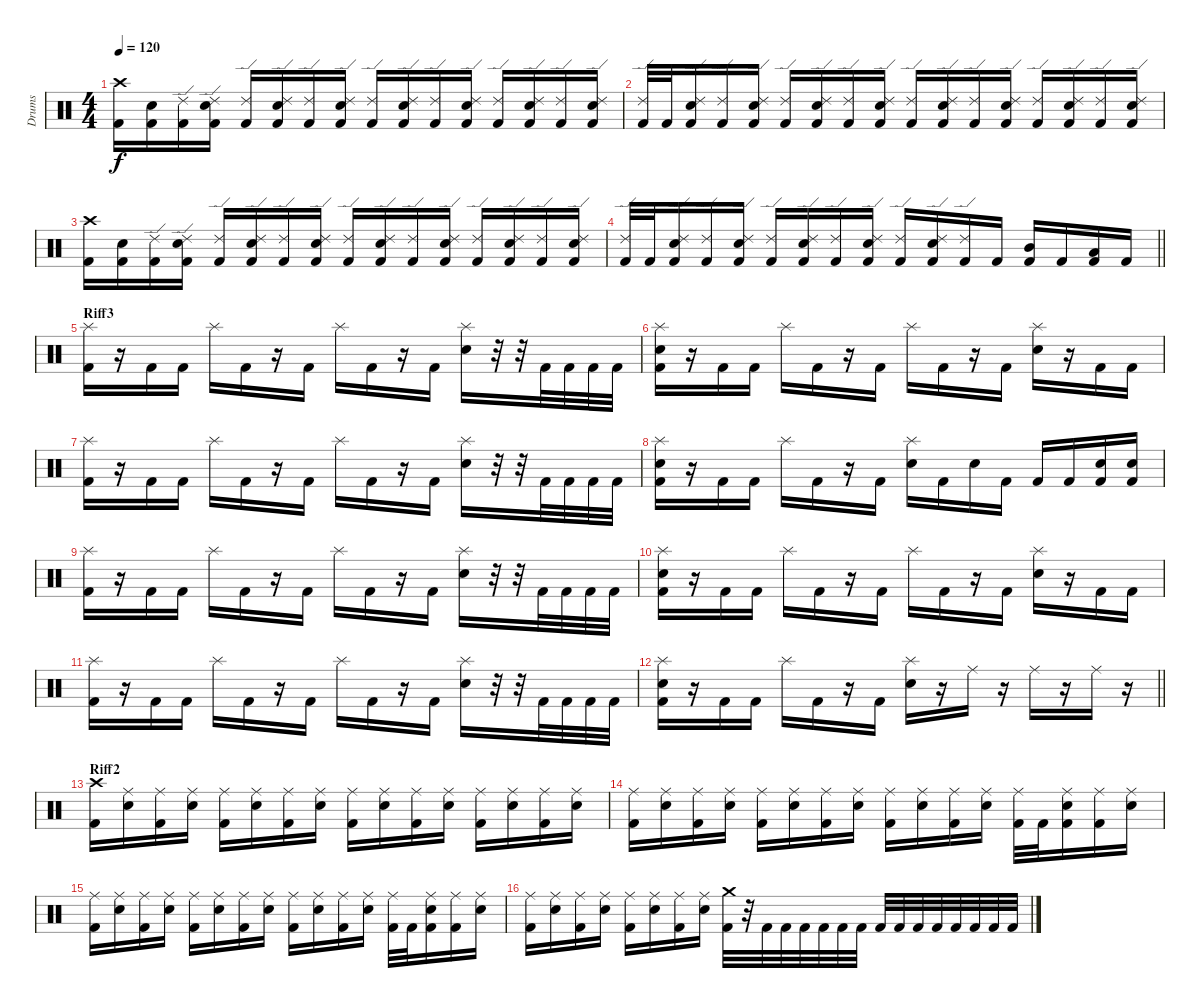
\track ("Drums" "Drums") {instrument percussion}
\staff {score}
\articulation defaults
\ts (4 4)
\tempo 120
\clef neutral
\ks c
("Kick (hit) 2" "Crash high (hit)").16{dy f} ("Kick (hit) 2" "Snare (hit) 2").16 ("Kick (hit) 2" "Ride (edge) 2").16 ("Kick (hit) 2" "Ride (edge) 2" "Snare (hit) 2").16 ("Kick (hit) 2" "Ride (edge) 2").16 ("Kick (hit) 2" "Ride (edge) 2" "Snare (hit) 2").16 ("Kick (hit) 2" "Ride (edge) 2").16 ("Kick (hit) 2" "Ride (edge) 2" "Snare (hit) 2").16 ("Kick (hit) 2" "Ride (edge) 2").16 ("Kick (hit) 2" "Ride (edge) 2" "Snare (hit) 2").16 ("Kick (hit) 2" "Ride (edge) 2").16 ("Kick (hit) 2" "Ride (edge) 2" "Snare (hit) 2").16 ("Kick (hit) 2" "Ride (edge) 2").16 ("Kick (hit) 2" "Ride (edge) 2" "Snare (hit) 2").16 ("Kick (hit) 2" "Ride (edge) 2").16 ("Kick (hit) 2" "Ride (edge) 2" "Snare (hit) 2").16 |
("Kick (hit) 2" "Ride (edge) 2").32 "Kick (hit) 2".32 ("Kick (hit) 2" "Ride (edge) 2" "Snare (hit) 2").16 ("Kick (hit) 2" "Ride (edge) 2").16 ("Kick (hit) 2" "Ride (edge) 2" "Snare (hit) 2").16 ("Kick (hit) 2" "Ride (edge) 2").16 ("Kick (hit) 2" "Ride (edge) 2" "Snare (hit) 2").16 ("Kick (hit) 2" "Ride (edge) 2").16 ("Kick (hit) 2" "Ride (edge) 2" "Snare (hit) 2").16 ("Kick (hit) 2" "Ride (edge) 2").16 ("Kick (hit) 2" "Ride (edge) 2" "Snare (hit) 2").16 ("Kick (hit) 2" "Ride (edge) 2").16 ("Kick (hit) 2" "Ride (edge) 2" "Snare (hit) 2").16 ("Kick (hit) 2" "Ride (edge) 2").16 ("Kick (hit) 2" "Ride (edge) 2" "Snare (hit) 2").16 ("Kick (hit) 2" "Ride (edge) 2").16 ("Kick (hit) 2" "Ride (edge) 2" "Snare (hit) 2").16 |
("Kick (hit) 2" "Crash high (hit)").16 ("Kick (hit) 2" "Snare (hit) 2").16 ("Kick (hit) 2" "Ride (edge) 2").16 ("Kick (hit) 2" "Ride (edge) 2" "Snare (hit) 2").16 ("Kick (hit) 2" "Ride (edge) 2").16 ("Kick (hit) 2" "Ride (edge) 2" "Snare (hit) 2").16 ("Kick (hit) 2" "Ride (edge) 2").16 ("Kick (hit) 2" "Ride (edge) 2" "Snare (hit) 2").16 ("Kick (hit) 2" "Ride (edge) 2").16 ("Kick (hit) 2" "Ride (edge) 2" "Snare (hit) 2").16 ("Kick (hit) 2" "Ride (edge) 2").16 ("Kick (hit) 2" "Ride (edge) 2" "Snare (hit) 2").16 ("Kick (hit) 2" "Ride (edge) 2").16 ("Kick (hit) 2" "Ride (edge) 2" "Snare (hit) 2").16 ("Kick (hit) 2" "Ride (edge) 2").16 ("Kick (hit) 2" "Ride (edge) 2" "Snare (hit) 2").16 |
\barLineRight lightlight
("Kick (hit) 2" "Ride (edge) 2").32 "Kick (hit) 2".32 ("Kick (hit) 2" "Ride (edge) 2" "Snare (hit) 2").16 ("Kick (hit) 2" "Ride (edge) 2").16 ("Kick (hit) 2" "Ride (edge) 2" "Snare (hit) 2").16 ("Kick (hit) 2" "Ride (edge) 2").16 ("Kick (hit) 2" "Ride (edge) 2" "Snare (hit) 2").16 ("Kick (hit) 2" "Ride (edge) 2").16 ("Kick (hit) 2" "Ride (edge) 2" "Snare (hit) 2").16 ("Kick (hit) 2" "Ride (edge) 2").16 ("Kick (hit) 2" "Ride (edge) 2" "Snare (hit) 2").16 ("Kick (hit) 2" "Ride (edge) 2").16 "Kick (hit) 2".16 ("Kick (hit) 2" "Mid Tom (hit)").16 "Kick (hit) 2".16 ("Kick (hit) 2" "Low Tom (hit)").16 "Kick (hit) 2".16 |
\section ("" "Riff3")
("Kick (hit) 2" "Splash (hit)").16 r.16 "Kick (hit) 2".16 "Kick (hit) 2".16 "Splash (hit)".16 "Kick (hit) 2".16 r.16 "Kick (hit) 2".16 "Splash (hit)".16 "Kick (hit) 2".16 r.16 "Kick (hit) 2".16 ("Splash (hit)" "Snare (hit) 2").16 r.32 r.32 "Kick (hit) 2".32 "Kick (hit) 2".32 "Kick (hit) 2".32 "Kick (hit) 2".32 |
("Kick (hit) 2" "Splash (hit)" "Snare (hit) 2").16 r.16 "Kick (hit) 2".16 "Kick (hit) 2".16 "Splash (hit)".16 "Kick (hit) 2".16 r.16 "Kick (hit) 2".16 "Splash (hit)".16 "Kick (hit) 2".16 r.16 "Kick (hit) 2".16 ("Splash (hit)" "Snare (hit) 2").16 r.16 "Kick (hit) 2".16 "Kick (hit) 2".16 |
("Kick (hit) 2" "Splash (hit)").16 r.16 "Kick (hit) 2".16 "Kick (hit) 2".16 "Splash (hit)".16 "Kick (hit) 2".16 r.16 "Kick (hit) 2".16 "Splash (hit)".16 "Kick (hit) 2".16 r.16 "Kick (hit) 2".16 ("Splash (hit)" "Snare (hit) 2").16 r.32 r.32 "Kick (hit) 2".32 "Kick (hit) 2".32 "Kick (hit) 2".32 "Kick (hit) 2".32 |
("Kick (hit) 2" "Splash (hit)" "Snare (hit) 2").16 r.16 "Kick (hit) 2".16 "Kick (hit) 2".16 "Splash (hit)".16 "Kick (hit) 2".16 r.16 "Kick (hit) 2".16 ("Splash (hit)" "Snare (hit) 2").16 "Kick (hit) 2".16 "Snare (hit) 2".16 "Kick (hit) 2".16 "Kick (hit) 2".16 "Kick (hit) 2".16 ("Kick (hit) 2" "Snare (hit) 2").16 ("Kick (hit) 2" "Snare (hit) 2").16 |
("Kick (hit) 2" "Splash (hit)").16 r.16 "Kick (hit) 2".16 "Kick (hit) 2".16 "Splash (hit)".16 "Kick (hit) 2".16 r.16 "Kick (hit) 2".16 "Splash (hit)".16 "Kick (hit) 2".16 r.16 "Kick (hit) 2".16 ("Splash (hit)" "Snare (hit) 2").16 r.32 r.32 "Kick (hit) 2".32 "Kick (hit) 2".32 "Kick (hit) 2".32 "Kick (hit) 2".32 |
("Kick (hit) 2" "Splash (hit)" "Snare (hit) 2").16 r.16 "Kick (hit) 2".16 "Kick (hit) 2".16 "Splash (hit)".16 "Kick (hit) 2".16 r.16 "Kick (hit) 2".16 "Splash (hit)".16 "Kick (hit) 2".16 r.16 "Kick (hit) 2".16 ("Splash (hit)" "Snare (hit) 2").16 r.16 "Kick (hit) 2".16 "Kick (hit) 2".16 |
("Kick (hit) 2" "Splash (hit)").16 r.16 "Kick (hit) 2".16 "Kick (hit) 2".16 "Splash (hit)".16 "Kick (hit) 2".16 r.16 "Kick (hit) 2".16 "Splash (hit)".16 "Kick (hit) 2".16 r.16 "Kick (hit) 2".16 ("Splash (hit)" "Snare (hit) 2").16 r.32 r.32 "Kick (hit) 2".32 "Kick (hit) 2".32 "Kick (hit) 2".32 "Kick (hit) 2".32 |
\barLineRight lightlight
("Kick (hit) 2" "Splash (hit)" "Snare (hit) 2").16 r.16 "Kick (hit) 2".16 "Kick (hit) 2".16 "Splash (hit)".16 "Kick (hit) 2".16 r.16 "Kick (hit) 2".16 ("Splash (hit)" "Snare (hit) 2").16 r.16 "Ride (middle)".16 r.16 "Ride (middle)".16 r.16 "Ride (middle)".16 r.16 |
\section ("" "Riff2")
("Kick (hit) 2" "Crash high (hit)").16 ("Ride (middle)" "Snare (hit) 2").16 ("Kick (hit) 2" "Ride (middle)").16 ("Ride (middle)" "Snare (hit) 2").16 ("Kick (hit) 2" "Ride (middle)").16 ("Ride (middle)" "Snare (hit) 2").16 ("Kick (hit) 2" "Ride (middle)").16 ("Ride (middle)" "Snare (hit) 2").16 ("Kick (hit) 2" "Ride (middle)").16 ("Ride (middle)" "Snare (hit) 2").16 ("Kick (hit) 2" "Ride (middle)").16 ("Ride (middle)" "Snare (hit) 2").16 ("Kick (hit) 2" "Ride (middle)").16 ("Ride (middle)" "Snare (hit) 2").16 ("Kick (hit) 2" "Ride (middle)").16 ("Ride (middle)" "Snare (hit) 2").16 |
("Kick (hit) 2" "Ride (middle)").16 ("Ride (middle)" "Snare (hit) 2").16 ("Kick (hit) 2" "Ride (middle)").16 ("Ride (middle)" "Snare (hit) 2").16 ("Kick (hit) 2" "Ride (middle)").16 ("Ride (middle)" "Snare (hit) 2").16 ("Kick (hit) 2" "Ride (middle)").16 ("Ride (middle)" "Snare (hit) 2").16 ("Kick (hit) 2" "Ride (middle)").16 ("Ride (middle)" "Snare (hit) 2").16 ("Kick (hit) 2" "Ride (middle)").16 ("Ride (middle)" "Snare (hit) 2").16 ("Kick (hit) 2" "Ride (middle)").32 "Kick (hit) 2".32 ("Kick (hit) 2" "Ride (middle)" "Snare (hit) 2").16 ("Kick (hit) 2" "Ride (middle)").16 ("Ride (middle)" "Snare (hit) 2").16 |
("Kick (hit) 2" "Ride (middle)").16 ("Ride (middle)" "Snare (hit) 2").16 ("Kick (hit) 2" "Ride (middle)").16 ("Ride (middle)" "Snare (hit) 2").16 ("Kick (hit) 2" "Ride (middle)").16 ("Ride (middle)" "Snare (hit) 2").16 ("Kick (hit) 2" "Ride (middle)").16 ("Ride (middle)" "Snare (hit) 2").16 ("Kick (hit) 2" "Ride (middle)").16 ("Ride (middle)" "Snare (hit) 2").16 ("Kick (hit) 2" "Ride (middle)").16 ("Ride (middle)" "Snare (hit) 2").16 ("Kick (hit) 2" "Ride (middle)").32 "Kick (hit) 2".32 ("Kick (hit) 2" "Ride (middle)" "Snare (hit) 2").16 ("Kick (hit) 2" "Ride (middle)").16 ("Ride (middle)" "Snare (hit) 2").16 |
("Kick (hit) 2" "Ride (middle)").16 ("Ride (middle)" "Snare (hit) 2").16 ("Kick (hit) 2" "Ride (middle)").16 ("Ride (middle)" "Snare (hit) 2").16 ("Kick (hit) 2" "Ride (middle)").16 ("Ride (middle)" "Snare (hit) 2").16 ("Kick (hit) 2" "Ride (middle)").16 ("Ride (middle)" "Snare (hit) 2").16 ("Kick (hit) 2" "Crash medium (hit)").32 r.32 "Kick (hit) 2".32 "Kick (hit) 2".32 "Kick (hit) 2".32 "Kick (hit) 2".32 "Kick (hit) 2".32 "Kick (hit) 2".32 "Kick (hit) 2".32 "Kick (hit) 2".32 "Kick (hit) 2".32 "Kick (hit) 2".32 "Kick (hit) 2".32 "Kick (hit) 2".32 "Kick (hit) 2".32 "Kick (hit) 2".32
